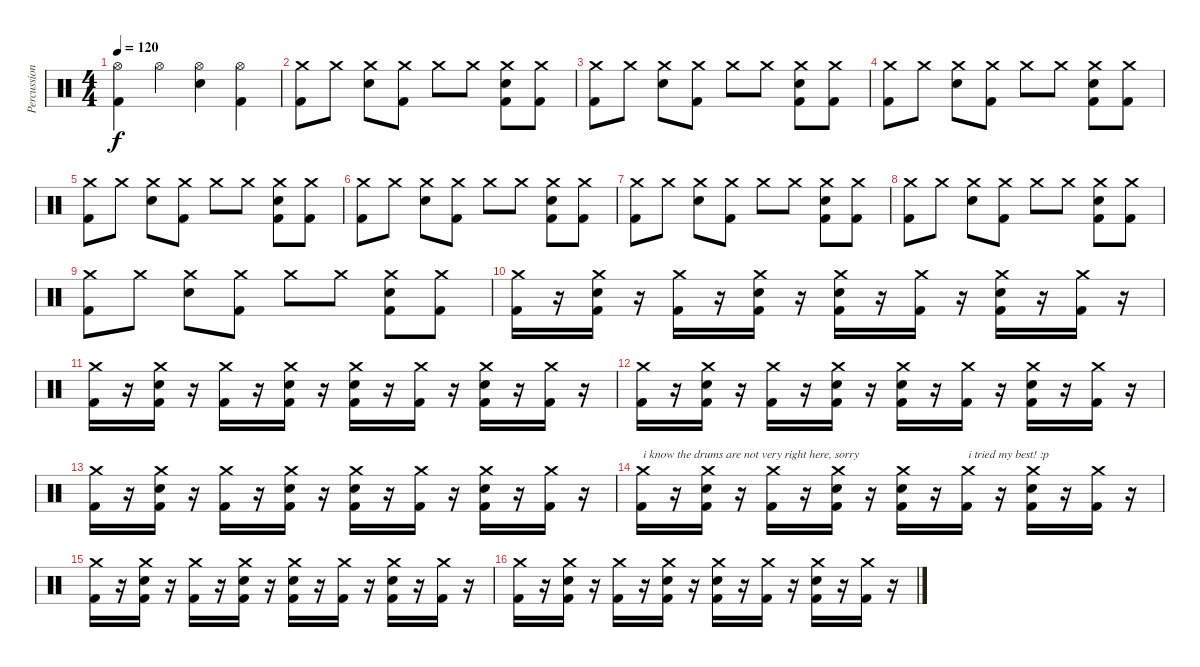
\track ("Percussion" "Percussion") {instrument percussion}
\staff {score}
\articulation defaults
\ts (4 4)
\tempo 120
\clef neutral
\ks c
("Hi-Hat (open)" "Kick (hit) 2").4{dy f} "Hi-Hat (open)".4 ("Hi-Hat (open)" "Electric Snare (hit)").4 ("Hi-Hat (open)" "Kick (hit) 2").4 |
("Crash medium (hit)" "Kick (hit) 2").8 "Crash medium (hit)".8 ("Crash medium (hit)" "Electric Snare (hit)").8 ("Crash medium (hit)" "Kick (hit) 2").8 "Crash medium (hit)".8 "Crash medium (hit)".8 ("Crash medium (hit)" "Electric Snare (hit)" "Kick (hit) 2").8 ("Crash medium (hit)" "Kick (hit) 2").8 |
("Crash medium (hit)" "Kick (hit) 2").8 "Crash medium (hit)".8 ("Crash medium (hit)" "Electric Snare (hit)").8 ("Crash medium (hit)" "Kick (hit) 2").8 "Crash medium (hit)".8 "Crash medium (hit)".8 ("Crash medium (hit)" "Electric Snare (hit)" "Kick (hit) 2").8 ("Crash medium (hit)" "Kick (hit) 2").8 |
("Crash medium (hit)" "Kick (hit) 2").8 "Crash medium (hit)".8 ("Crash medium (hit)" "Electric Snare (hit)").8 ("Crash medium (hit)" "Kick (hit) 2").8 "Crash medium (hit)".8 "Crash medium (hit)".8 ("Crash medium (hit)" "Electric Snare (hit)" "Kick (hit) 2").8 ("Crash medium (hit)" "Kick (hit) 2").8 |
("Crash medium (hit)" "Kick (hit) 2").8 "Crash medium (hit)".8 ("Crash medium (hit)" "Electric Snare (hit)").8 ("Crash medium (hit)" "Kick (hit) 2").8 "Crash medium (hit)".8 "Crash medium (hit)".8 ("Crash medium (hit)" "Electric Snare (hit)" "Kick (hit) 2").8 ("Crash medium (hit)" "Kick (hit) 2").8 |
("Crash medium (hit)" "Kick (hit) 2").8 "Crash medium (hit)".8 ("Crash medium (hit)" "Electric Snare (hit)").8 ("Crash medium (hit)" "Kick (hit) 2").8 "Crash medium (hit)".8 "Crash medium (hit)".8 ("Crash medium (hit)" "Electric Snare (hit)" "Kick (hit) 2").8 ("Crash medium (hit)" "Kick (hit) 2").8 |
("Crash medium (hit)" "Kick (hit) 2").8 "Crash medium (hit)".8 ("Crash medium (hit)" "Electric Snare (hit)").8 ("Crash medium (hit)" "Kick (hit) 2").8 "Crash medium (hit)".8 "Crash medium (hit)".8 ("Crash medium (hit)" "Electric Snare (hit)" "Kick (hit) 2").8 ("Crash medium (hit)" "Kick (hit) 2").8 |
("Crash medium (hit)" "Kick (hit) 2").8 "Crash medium (hit)".8 ("Crash medium (hit)" "Electric Snare (hit)").8 ("Crash medium (hit)" "Kick (hit) 2").8 "Crash medium (hit)".8 "Crash medium (hit)".8 ("Crash medium (hit)" "Electric Snare (hit)" "Kick (hit) 2").8 ("Crash medium (hit)" "Kick (hit) 2").8 |
("Crash medium (hit)" "Kick (hit) 2").8 "Crash medium (hit)".8 ("Crash medium (hit)" "Electric Snare (hit)").8 ("Crash medium (hit)" "Kick (hit) 2").8 "Crash medium (hit)".8 "Crash medium (hit)".8 ("Crash medium (hit)" "Electric Snare (hit)" "Kick (hit) 2").8 ("Crash medium (hit)" "Kick (hit) 2").8 |
("Crash medium (hit)" "Kick (hit) 2").16 r.16 ("Crash medium (hit)" "Electric Snare (hit)" "Kick (hit) 2").16 r.16 ("Crash medium (hit)" "Kick (hit) 2").16 r.16 ("Crash medium (hit)" "Electric Snare (hit)" "Kick (hit) 2").16 r.16 ("Crash medium (hit)" "Electric Snare (hit)" "Kick (hit) 2").16 r.16 ("Crash medium (hit)" "Kick (hit) 2").16 r.16 ("Crash medium (hit)" "Electric Snare (hit)" "Kick (hit) 2").16 r.16 ("Crash medium (hit)" "Kick (hit) 2").16 r.16 |
("Crash medium (hit)" "Kick (hit) 2").16 r.16 ("Crash medium (hit)" "Electric Snare (hit)" "Kick (hit) 2").16 r.16 ("Crash medium (hit)" "Kick (hit) 2").16 r.16 ("Crash medium (hit)" "Electric Snare (hit)" "Kick (hit) 2").16 r.16 ("Crash medium (hit)" "Electric Snare (hit)" "Kick (hit) 2").16 r.16 ("Crash medium (hit)" "Kick (hit) 2").16 r.16 ("Crash medium (hit)" "Electric Snare (hit)" "Kick (hit) 2").16 r.16 ("Crash medium (hit)" "Kick (hit) 2").16 r.16 |
("Crash medium (hit)" "Kick (hit) 2").16 r.16 ("Crash medium (hit)" "Electric Snare (hit)" "Kick (hit) 2").16 r.16 ("Crash medium (hit)" "Kick (hit) 2").16 r.16 ("Crash medium (hit)" "Electric Snare (hit)" "Kick (hit) 2").16 r.16 ("Crash medium (hit)" "Electric Snare (hit)" "Kick (hit) 2").16 r.16 ("Crash medium (hit)" "Kick (hit) 2").16 r.16 ("Crash medium (hit)" "Electric Snare (hit)" "Kick (hit) 2").16 r.16 ("Crash medium (hit)" "Kick (hit) 2").16 r.16 |
("Crash medium (hit)" "Kick (hit) 2").16 r.16 ("Crash medium (hit)" "Electric Snare (hit)" "Kick (hit) 2").16 r.16 ("Crash medium (hit)" "Kick (hit) 2").16 r.16 ("Crash medium (hit)" "Electric Snare (hit)" "Kick (hit) 2").16 r.16 ("Crash medium (hit)" "Electric Snare (hit)" "Kick (hit) 2").16 r.16 ("Crash medium (hit)" "Kick (hit) 2").16 r.16 ("Crash medium (hit)" "Electric Snare (hit)" "Kick (hit) 2").16 r.16 ("Crash medium (hit)" "Kick (hit) 2").16 r.16 |
("Crash medium (hit)" "Kick (hit) 2").16{txt "i know the drums are not very right here, sorry"} r.16 ("Crash medium (hit)" "Electric Snare (hit)" "Kick (hit) 2").16 r.16 ("Crash medium (hit)" "Kick (hit) 2").16 r.16 ("Crash medium (hit)" "Electric Snare (hit)" "Kick (hit) 2").16 r.16 ("Crash medium (hit)" "Electric Snare (hit)" "Kick (hit) 2").16 r.16 ("Crash medium (hit)" "Kick (hit) 2").16{txt "i tried my best! :p"} r.16 ("Crash medium (hit)" "Electric Snare (hit)" "Kick (hit) 2").16 r.16 ("Crash medium (hit)" "Kick (hit) 2").16 r.16 |
("Crash medium (hit)" "Kick (hit) 2").16 r.16 ("Crash medium (hit)" "Electric Snare (hit)" "Kick (hit) 2").16 r.16 ("Crash medium (hit)" "Kick (hit) 2").16 r.16 ("Crash medium (hit)" "Electric Snare (hit)" "Kick (hit) 2").16 r.16 ("Crash medium (hit)" "Electric Snare (hit)" "Kick (hit) 2").16 r.16 ("Crash medium (hit)" "Kick (hit) 2").16 r.16 ("Crash medium (hit)" "Electric Snare (hit)" "Kick (hit) 2").16 r.16 ("Crash medium (hit)" "Kick (hit) 2").16 r.16 |
("Crash medium (hit)" "Kick (hit) 2").16 r.16 ("Crash medium (hit)" "Electric Snare (hit)" "Kick (hit) 2").16 r.16 ("Crash medium (hit)" "Kick (hit) 2").16 r.16 ("Crash medium (hit)" "Electric Snare (hit)" "Kick (hit) 2").16 r.16 ("Crash medium (hit)" "Electric Snare (hit)" "Kick (hit) 2").16 r.16 ("Crash medium (hit)" "Kick (hit) 2").16 r.16 ("Crash medium (hit)" "Electric Snare (hit)" "Kick (hit) 2").16 r.16 ("Crash medium (hit)" "Kick (hit) 2").16 r.16
